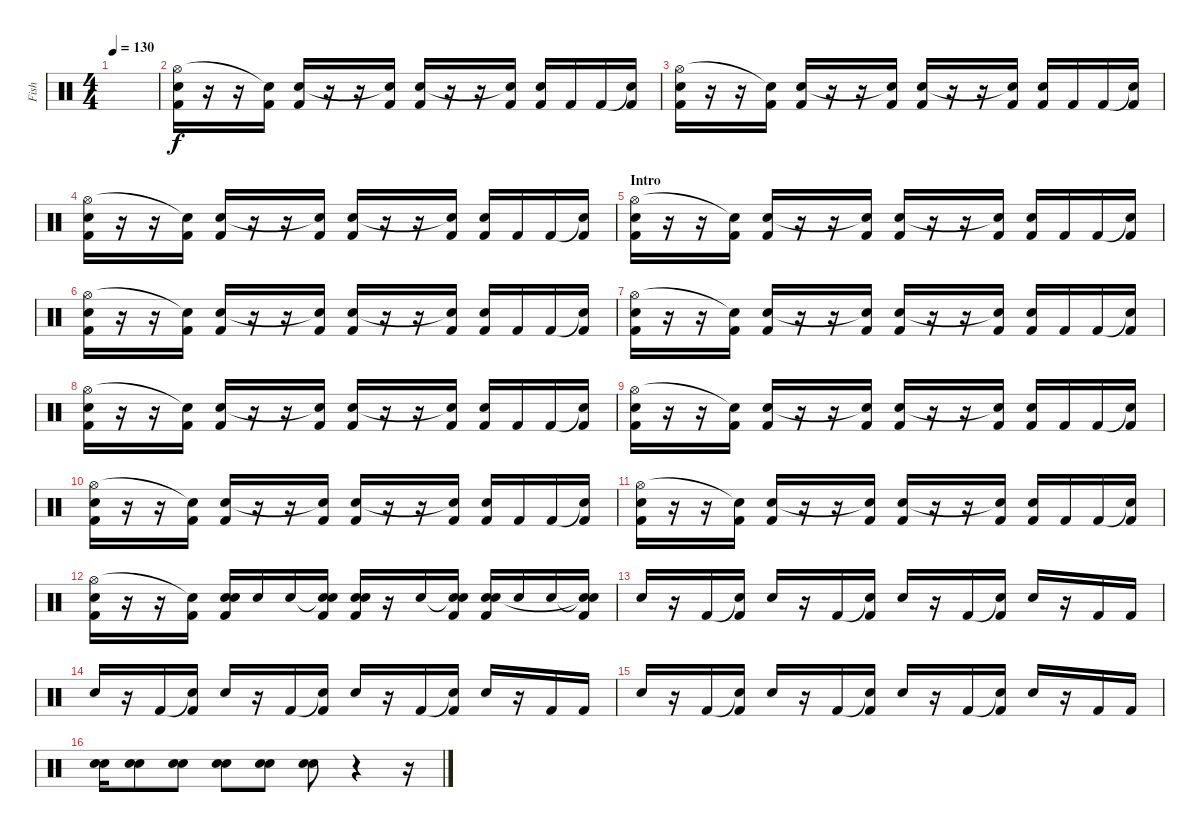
\track ("Fish" "Fish") {instrument percussion}
\staff {score}
\articulation defaults
\ts (4 4)
\tempo 130
\clef neutral
\ks c
|
("Hi-Hat (open)" "Snare (hit) 2" "Kick (hit) 2").16 r.16 r.16 ("Snare (hit) 2"{t} "Kick (hit) 2").16 ("Snare (hit) 2" "Kick (hit) 2").16 r.16 r.16 ("Snare (hit) 2"{t} "Kick (hit) 2").16 ("Snare (hit) 2" "Kick (hit) 2").16 r.16 r.16 ("Snare (hit) 2"{t} "Kick (hit) 2").16 ("Snare (hit) 2" "Kick (hit) 2").16 "Kick (hit) 2".16 "Kick (hit) 2".16 ("Snare (hit) 2"{t} "Kick (hit) 2").16 |
("Hi-Hat (open)" "Snare (hit) 2" "Kick (hit) 2").16 r.16 r.16 ("Snare (hit) 2"{t} "Kick (hit) 2").16 ("Snare (hit) 2" "Kick (hit) 2").16 r.16 r.16 ("Snare (hit) 2"{t} "Kick (hit) 2").16 ("Snare (hit) 2" "Kick (hit) 2").16 r.16 r.16 ("Snare (hit) 2"{t} "Kick (hit) 2").16 ("Snare (hit) 2" "Kick (hit) 2").16 "Kick (hit) 2".16 "Kick (hit) 2".16 ("Snare (hit) 2"{t} "Kick (hit) 2").16 |
("Hi-Hat (open)" "Snare (hit) 2" "Kick (hit) 2").16 r.16 r.16 ("Snare (hit) 2"{t} "Kick (hit) 2").16 ("Snare (hit) 2" "Kick (hit) 2").16 r.16 r.16 ("Snare (hit) 2"{t} "Kick (hit) 2").16 ("Snare (hit) 2" "Kick (hit) 2").16 r.16 r.16 ("Snare (hit) 2"{t} "Kick (hit) 2").16 ("Snare (hit) 2" "Kick (hit) 2").16 "Kick (hit) 2".16 "Kick (hit) 2".16 ("Snare (hit) 2"{t} "Kick (hit) 2").16 |
\section ("" "Intro")
("Hi-Hat (open)" "Snare (hit) 2" "Kick (hit) 2").16 r.16 r.16 ("Snare (hit) 2"{t} "Kick (hit) 2").16 ("Snare (hit) 2" "Kick (hit) 2").16 r.16 r.16 ("Snare (hit) 2"{t} "Kick (hit) 2").16 ("Snare (hit) 2" "Kick (hit) 2").16 r.16 r.16 ("Snare (hit) 2"{t} "Kick (hit) 2").16 ("Snare (hit) 2" "Kick (hit) 2").16 "Kick (hit) 2".16 "Kick (hit) 2".16 ("Snare (hit) 2"{t} "Kick (hit) 2").16 |
("Hi-Hat (open)" "Snare (hit) 2" "Kick (hit) 2").16 r.16 r.16 ("Snare (hit) 2"{t} "Kick (hit) 2").16 ("Snare (hit) 2" "Kick (hit) 2").16 r.16 r.16 ("Snare (hit) 2"{t} "Kick (hit) 2").16 ("Snare (hit) 2" "Kick (hit) 2").16 r.16 r.16 ("Snare (hit) 2"{t} "Kick (hit) 2").16 ("Snare (hit) 2" "Kick (hit) 2").16 "Kick (hit) 2".16 "Kick (hit) 2".16 ("Snare (hit) 2"{t} "Kick (hit) 2").16 |
("Hi-Hat (open)" "Snare (hit) 2" "Kick (hit) 2").16 r.16 r.16 ("Snare (hit) 2"{t} "Kick (hit) 2").16 ("Snare (hit) 2" "Kick (hit) 2").16 r.16 r.16 ("Snare (hit) 2"{t} "Kick (hit) 2").16 ("Snare (hit) 2" "Kick (hit) 2").16 r.16 r.16 ("Snare (hit) 2"{t} "Kick (hit) 2").16 ("Snare (hit) 2" "Kick (hit) 2").16 "Kick (hit) 2".16 "Kick (hit) 2".16 ("Snare (hit) 2"{t} "Kick (hit) 2").16 |
("Hi-Hat (open)" "Snare (hit) 2" "Kick (hit) 2").16 r.16 r.16 ("Snare (hit) 2"{t} "Kick (hit) 2").16 ("Snare (hit) 2" "Kick (hit) 2").16 r.16 r.16 ("Snare (hit) 2"{t} "Kick (hit) 2").16 ("Snare (hit) 2" "Kick (hit) 2").16 r.16 r.16 ("Snare (hit) 2"{t} "Kick (hit) 2").16 ("Snare (hit) 2" "Kick (hit) 2").16 "Kick (hit) 2".16 "Kick (hit) 2".16 ("Snare (hit) 2"{t} "Kick (hit) 2").16 |
("Hi-Hat (open)" "Snare (hit) 2" "Kick (hit) 2").16 r.16 r.16 ("Snare (hit) 2"{t} "Kick (hit) 2").16 ("Snare (hit) 2" "Kick (hit) 2").16 r.16 r.16 ("Snare (hit) 2"{t} "Kick (hit) 2").16 ("Snare (hit) 2" "Kick (hit) 2").16 r.16 r.16 ("Snare (hit) 2"{t} "Kick (hit) 2").16 ("Snare (hit) 2" "Kick (hit) 2").16 "Kick (hit) 2".16 "Kick (hit) 2".16 ("Snare (hit) 2"{t} "Kick (hit) 2").16 |
("Hi-Hat (open)" "Snare (hit) 2" "Kick (hit) 2").16 r.16 r.16 ("Snare (hit) 2"{t} "Kick (hit) 2").16 ("Snare (hit) 2" "Kick (hit) 2").16 r.16 r.16 ("Snare (hit) 2"{t} "Kick (hit) 2").16 ("Snare (hit) 2" "Kick (hit) 2").16 r.16 r.16 ("Snare (hit) 2"{t} "Kick (hit) 2").16 ("Snare (hit) 2" "Kick (hit) 2").16 "Kick (hit) 2".16 "Kick (hit) 2".16 ("Snare (hit) 2"{t} "Kick (hit) 2").16 |
("Hi-Hat (open)" "Snare (hit) 2" "Kick (hit) 2").16 r.16 r.16 ("Snare (hit) 2"{t} "Kick (hit) 2").16 ("Snare (hit) 2" "Kick (hit) 2").16 r.16 r.16 ("Snare (hit) 2"{t} "Kick (hit) 2").16 ("Snare (hit) 2" "Kick (hit) 2").16 r.16 r.16 ("Snare (hit) 2"{t} "Kick (hit) 2").16 ("Snare (hit) 2" "Kick (hit) 2").16 "Kick (hit) 2".16 "Kick (hit) 2".16 ("Snare (hit) 2"{t} "Kick (hit) 2").16 |
("Hi-Hat (open)" "Snare (hit) 2" "Kick (hit) 2").16 r.16 r.16 ("Snare (hit) 2"{t} "Kick (hit) 2").16 ("Snare (hit) 2" "Snare (hit) 2" "Kick (hit) 2").16 "Snare (hit) 2".16 "Snare (hit) 2".16 ("Snare (hit) 2"{t} "Snare (hit) 2" "Kick (hit) 2").16 ("Snare (hit) 2" "Snare (hit) 2" "Kick (hit) 2").16 r.16 "Snare (hit) 2".16 ("Snare (hit) 2"{t} "Snare (hit) 2" "Kick (hit) 2").16 ("Snare (hit) 2" "Snare (hit) 2" "Kick (hit) 2").16 "Snare (hit) 2".16 "Snare (hit) 2".16 ("Snare (hit) 2"{t} "Snare (hit) 2"{t} "Kick (hit) 2").16 |
"Snare (hit) 2".16 r.16 "Kick (hit) 2".16 ("Snare (hit) 2"{t} "Kick (hit) 2").16 "Snare (hit) 2".16 r.16 "Kick (hit) 2".16 ("Snare (hit) 2"{t} "Kick (hit) 2").16 "Snare (hit) 2".16 r.16 "Kick (hit) 2".16 ("Snare (hit) 2"{t} "Kick (hit) 2").16 "Snare (hit) 2".16 r.16 "Kick (hit) 2".16 "Kick (hit) 2".16 |
"Snare (hit) 2".16 r.16 "Kick (hit) 2".16 ("Snare (hit) 2"{t} "Kick (hit) 2").16 "Snare (hit) 2".16 r.16 "Kick (hit) 2".16 ("Snare (hit) 2"{t} "Kick (hit) 2").16 "Snare (hit) 2".16 r.16 "Kick (hit) 2".16 ("Snare (hit) 2"{t} "Kick (hit) 2").16 "Snare (hit) 2".16 r.16 "Kick (hit) 2".16 "Kick (hit) 2".16 |
"Snare (hit) 2".16 r.16 "Kick (hit) 2".16 ("Snare (hit) 2"{t} "Kick (hit) 2").16 "Snare (hit) 2".16 r.16 "Kick (hit) 2".16 ("Snare (hit) 2"{t} "Kick (hit) 2").16 "Snare (hit) 2".16 r.16 "Kick (hit) 2".16 ("Snare (hit) 2"{t} "Kick (hit) 2").16 "Snare (hit) 2".16 r.16 "Kick (hit) 2".16 "Kick (hit) 2".16 |
("Snare (hit) 2" "Snare (hit) 2").16 ("Snare (hit) 2" "Snare (hit) 2").8 ("Snare (hit) 2" "Snare (hit) 2").8 ("Snare (hit) 2" "Snare (hit) 2").8 ("Snare (hit) 2" "Snare (hit) 2").8 ("Snare (hit) 2" "Snare (hit) 2").8 r.4 r.16
